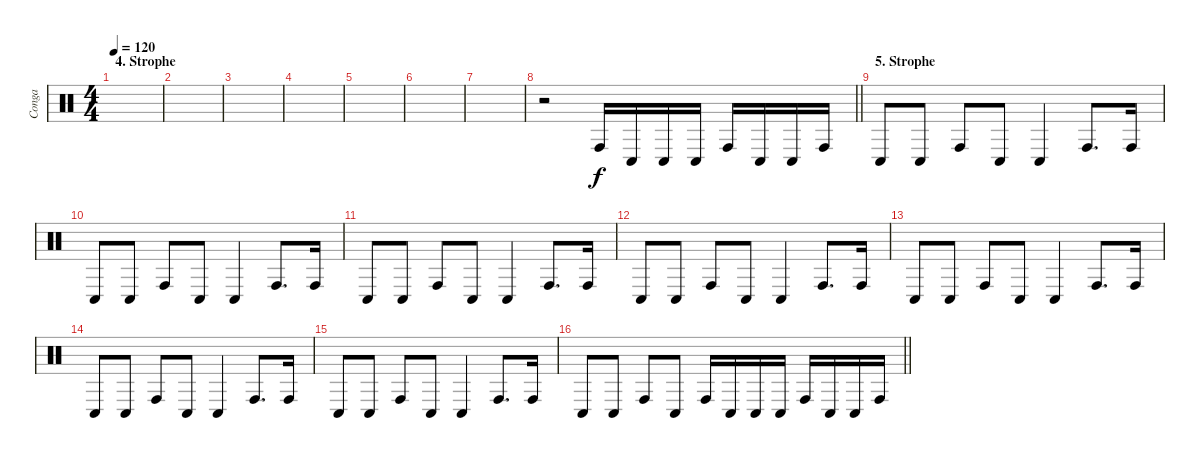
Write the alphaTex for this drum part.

\track ("Conga" "Conga") {instrument percussion}
\staff {score}
\articulation defaults
\ts (4 4)
\section ("" "4. Strophe")
\tempo 120
\clef neutral
\ks c
|
|
|
|
|
|
|
\barLineRight lightlight
r.2 "Conga high (hit)".16 "Conga low (hit)".16 "Conga low (hit)".16 "Conga low (hit)".16 "Conga high (hit)".16 "Conga low (hit)".16 "Conga low (hit)".16 "Conga high (hit)".16 |
\section ("" "5. Strophe")
"Conga low (hit)".8 "Conga low (hit)".8 "Conga high (hit)".8 "Conga low (hit)".8 "Conga low (hit)".4 "Conga high (hit)".8{d} "Conga high (hit)".16 |
"Conga low (hit)".8 "Conga low (hit)".8 "Conga high (hit)".8 "Conga low (hit)".8 "Conga low (hit)".4 "Conga high (hit)".8{d} "Conga high (hit)".16 |
"Conga low (hit)".8 "Conga low (hit)".8 "Conga high (hit)".8 "Conga low (hit)".8 "Conga low (hit)".4 "Conga high (hit)".8{d} "Conga high (hit)".16 |
"Conga low (hit)".8 "Conga low (hit)".8 "Conga high (hit)".8 "Conga low (hit)".8 "Conga low (hit)".4 "Conga high (hit)".8{d} "Conga high (hit)".16 |
"Conga low (hit)".8 "Conga low (hit)".8 "Conga high (hit)".8 "Conga low (hit)".8 "Conga low (hit)".4 "Conga high (hit)".8{d} "Conga high (hit)".16 |
"Conga low (hit)".8 "Conga low (hit)".8 "Conga high (hit)".8 "Conga low (hit)".8 "Conga low (hit)".4 "Conga high (hit)".8{d} "Conga high (hit)".16 |
"Conga low (hit)".8 "Conga low (hit)".8 "Conga high (hit)".8 "Conga low (hit)".8 "Conga low (hit)".4 "Conga high (hit)".8{d} "Conga high (hit)".16 |
\barLineRight lightlight "Conga low (hit)".8 "Conga low (hit)".8 "Conga high (hit)".8 "Conga low (hit)".8 "Conga high (hit)".16 "Conga low (hit)".16 "Conga low (hit)".16 "Conga low (hit)".16 "Conga high (hit)".16 "Conga low (hit)".16 "Conga low (hit)".16 "Conga high (hit)".16
